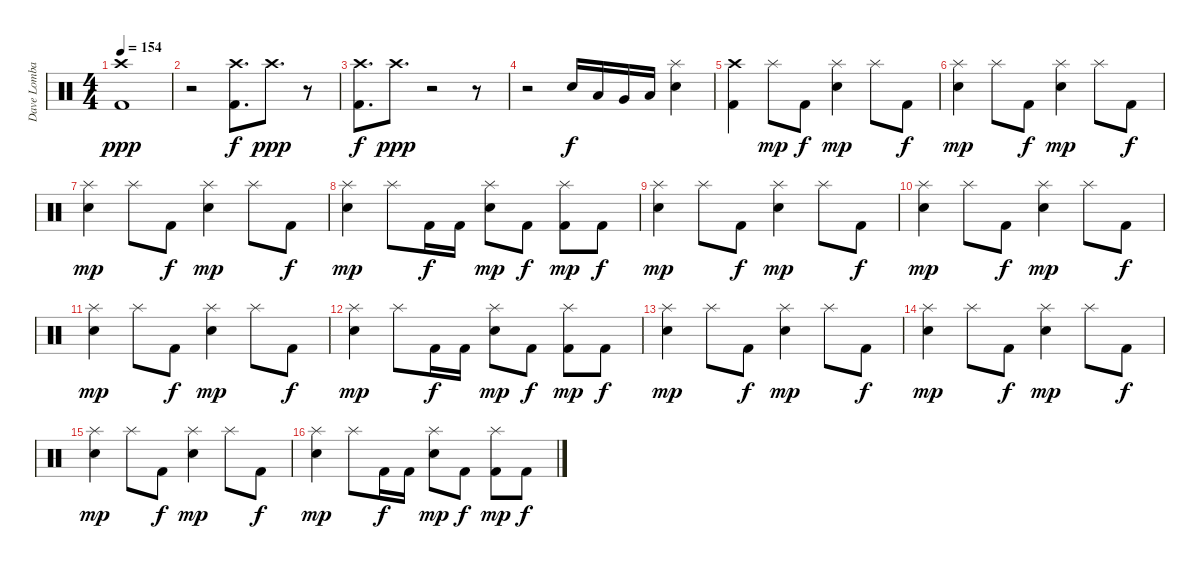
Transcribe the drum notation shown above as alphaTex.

\track ("Dave Lombardo" "Dave Lomba") {instrument percussion}
\staff {score}
\articulation defaults
\ts (4 4)
\tempo 154
\clef neutral
\ks c
("Crash high (hit)" "Kick (hit) 2").1{dy ppp} |
r.2 ("Crash high (hit)" "Kick (hit) 2").8{d dy f} "Crash high (hit)".8{d dy ppp} r.8 |
("Crash high (hit)" "Kick (hit) 2").8{d dy f} "Crash high (hit)".8{d dy ppp} r.2 r.8 |
r.2 "Snare (hit) 2".16{dy f} "Low Floor Tom (hit)".16 "Very Low Tom (hit)".16 "Low Floor Tom (hit)".16 ("Splash (hit)" "Snare (hit) 2").4 |
("Crash high (hit)" "Kick (hit) 2").4 "Splash (hit)".8{dy mp} "Kick (hit) 2".8{dy f} ("Splash (hit)" "Snare (hit) 2").4{dy mp} "Splash (hit)".8 "Kick (hit) 2".8{dy f} |
("Splash (hit)" "Snare (hit) 2").4{dy mp} "Splash (hit)".8 "Kick (hit) 2".8{dy f} ("Splash (hit)" "Snare (hit) 2").4{dy mp} "Splash (hit)".8 "Kick (hit) 2".8{dy f} |
("Splash (hit)" "Snare (hit) 2").4{dy mp} "Splash (hit)".8 "Kick (hit) 2".8{dy f} ("Splash (hit)" "Snare (hit) 2").4{dy mp} "Splash (hit)".8 "Kick (hit) 2".8{dy f} |
("Splash (hit)" "Snare (hit) 2").4{dy mp} "Splash (hit)".8 "Kick (hit) 2".16{dy f} "Kick (hit) 2".16 ("Splash (hit)" "Snare (hit) 2").8{dy mp} "Kick (hit) 2".8{dy f} ("Splash (hit)" "Kick (hit) 2").8{dy mp} "Kick (hit) 2".8{dy f} |
("Splash (hit)" "Snare (hit) 2").4{dy mp} "Splash (hit)".8 "Kick (hit) 2".8{dy f} ("Splash (hit)" "Snare (hit) 2").4{dy mp} "Splash (hit)".8 "Kick (hit) 2".8{dy f} |
("Splash (hit)" "Snare (hit) 2").4{dy mp} "Splash (hit)".8 "Kick (hit) 2".8{dy f} ("Splash (hit)" "Snare (hit) 2").4{dy mp} "Splash (hit)".8 "Kick (hit) 2".8{dy f} |
("Splash (hit)" "Snare (hit) 2").4{dy mp} "Splash (hit)".8 "Kick (hit) 2".8{dy f} ("Splash (hit)" "Snare (hit) 2").4{dy mp} "Splash (hit)".8 "Kick (hit) 2".8{dy f} |
("Splash (hit)" "Snare (hit) 2").4{dy mp} "Splash (hit)".8 "Kick (hit) 2".16{dy f} "Kick (hit) 2".16 ("Splash (hit)" "Snare (hit) 2").8{dy mp} "Kick (hit) 2".8{dy f} ("Splash (hit)" "Kick (hit) 2").8{dy mp} "Kick (hit) 2".8{dy f} |
("Splash (hit)" "Snare (hit) 2").4{dy mp} "Splash (hit)".8 "Kick (hit) 2".8{dy f} ("Splash (hit)" "Snare (hit) 2").4{dy mp} "Splash (hit)".8 "Kick (hit) 2".8{dy f} |
("Splash (hit)" "Snare (hit) 2").4{dy mp} "Splash (hit)".8 "Kick (hit) 2".8{dy f} ("Splash (hit)" "Snare (hit) 2").4{dy mp} "Splash (hit)".8 "Kick (hit) 2".8{dy f} |
("Splash (hit)" "Snare (hit) 2").4{dy mp} "Splash (hit)".8 "Kick (hit) 2".8{dy f} ("Splash (hit)" "Snare (hit) 2").4{dy mp} "Splash (hit)".8 "Kick (hit) 2".8{dy f} |
("Splash (hit)" "Snare (hit) 2").4{dy mp} "Splash (hit)".8 "Kick (hit) 2".16{dy f} "Kick (hit) 2".16 ("Splash (hit)" "Snare (hit) 2").8{dy mp} "Kick (hit) 2".8{dy f} ("Splash (hit)" "Kick (hit) 2").8{dy mp} "Kick (hit) 2".8{dy f}
